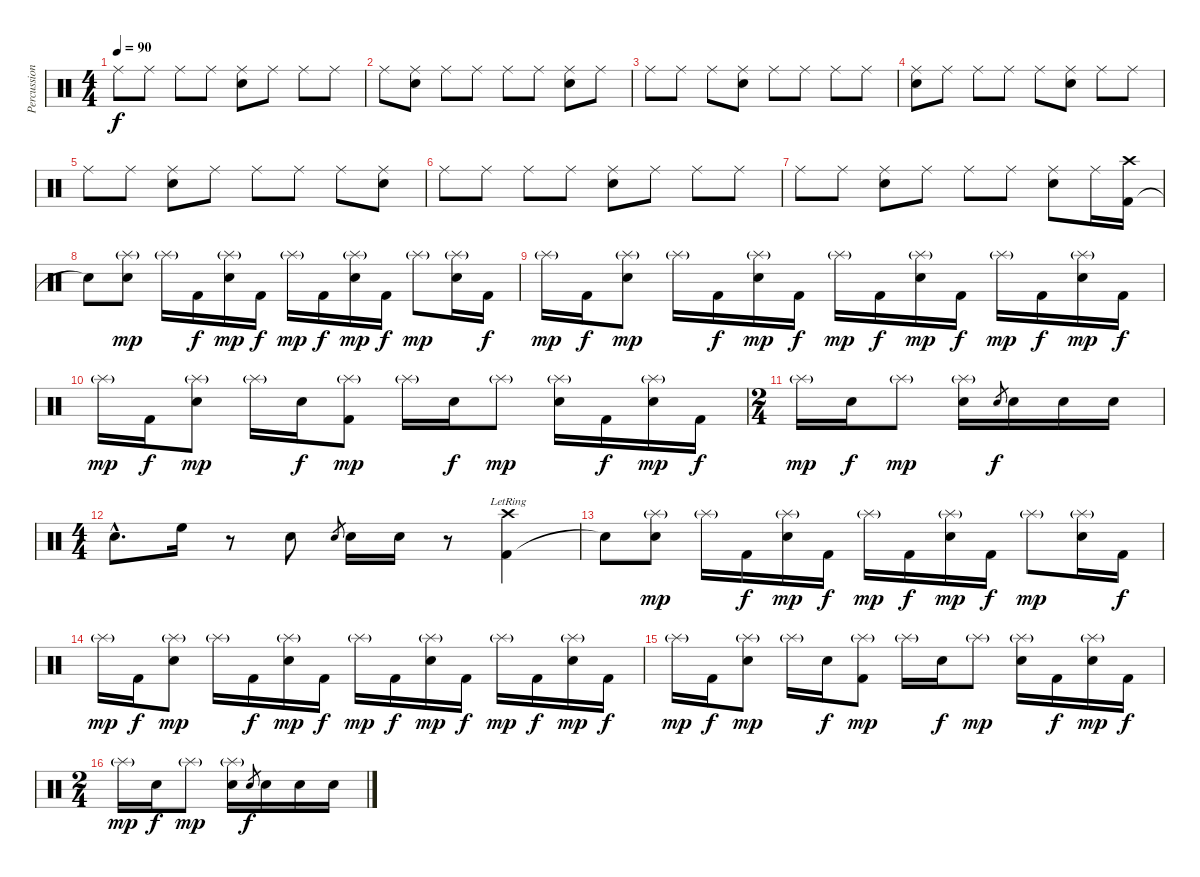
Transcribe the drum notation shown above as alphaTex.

\track ("Percussion" "Percussion") {instrument percussion}
\staff {score}
\articulation defaults
\ts (4 4)
\tempo 90
\clef neutral
\ks c "Ride (middle)".8{dy f} "Ride (middle)".8 "Ride (middle)".8 "Ride (middle)".8
("Snare (hit) 2" "Ride (middle)").8 "Ride (middle)".8 "Ride (middle)".8 "Ride (middle)".8 |
"Ride (middle)".8 ("Snare (hit) 2" "Ride (middle)").8 "Ride (middle)".8 "Ride (middle)".8 "Ride (middle)".8 "Ride (middle)".8 ("Snare (hit) 2" "Ride (middle)").8 "Ride (middle)".8 |
"Ride (middle)".8 "Ride (middle)".8 "Ride (middle)".8 ("Snare (hit) 2" "Ride (middle)").8 "Ride (middle)".8 "Ride (middle)".8 "Ride (middle)".8 "Ride (middle)".8 |
("Snare (hit) 2" "Ride (middle)").8 "Ride (middle)".8 "Ride (middle)".8 "Ride (middle)".8 "Ride (middle)".8 ("Snare (hit) 2" "Ride (middle)").8 "Ride (middle)".8 "Ride (middle)".8 |
"Ride (middle)".8 "Ride (middle)".8 ("Snare (hit) 2" "Ride (middle)").8 "Ride (middle)".8 "Ride (middle)".8 "Ride (middle)".8 "Ride (middle)".8 ("Snare (hit) 2" "Ride (middle)").8 |
"Ride (middle)".8 "Ride (middle)".8 "Ride (middle)".8 "Ride (middle)".8 ("Snare (hit) 2" "Ride (middle)").8 "Ride (middle)".8 "Ride (middle)".8 "Ride (middle)".8 |
"Ride (middle)".8 "Ride (middle)".8 ("Snare (hit) 2" "Ride (middle)").8 "Ride (middle)".8 "Ride (middle)".8 "Ride (middle)".8 ("Snare (hit) 2" "Ride (middle)").8 "Ride (middle)".16 ("Kick (hit) 2" "Crash high (hit)").16 |
"Snare (hit)"{t}.8 ("Snare (hit) 2" "Splash (hit)"{g}).8{dy mp} "Splash (hit)"{g}.16 "Kick (hit) 2".16{dy f} ("Snare (hit) 2" "Splash (hit)"{g}).16{dy mp} "Kick (hit) 2".16{dy f} "Splash (hit)"{g}.16{dy mp} "Kick (hit) 2".16{dy f} ("Snare (hit) 2" "Splash (hit)"{g}).16{dy mp} "Kick (hit) 2".16{dy f} "Splash (hit)"{g}.8{dy mp} ("Snare (hit) 2" "Splash (hit)"{g}).16 "Kick (hit) 2".16{dy f} |
"Splash (hit)"{g}.16{dy mp} "Kick (hit) 2".16{dy f} ("Snare (hit) 2" "Splash (hit)"{g}).8{dy mp} "Splash (hit)"{g}.16 "Kick (hit) 2".16{dy f} ("Snare (hit) 2" "Splash (hit)"{g}).16{dy mp} "Kick (hit) 2".16{dy f} "Splash (hit)"{g}.16{dy mp} "Kick (hit) 2".16{dy f} ("Snare (hit) 2" "Splash (hit)"{g}).16{dy mp} "Kick (hit) 2".16{dy f} "Splash (hit)"{g}.16{dy mp} "Kick (hit) 2".16{dy f} ("Snare (hit) 2" "Splash (hit)"{g}).16{dy mp} "Kick (hit) 2".16{dy f} |
"Splash (hit)"{g}.16{dy mp} "Kick (hit) 2".16{dy f} ("Snare (hit) 2" "Splash (hit)"{g}).8{dy mp} "Splash (hit)"{g}.16 "Snare (hit) 2".16{dy f} ("Kick (hit) 2" "Splash (hit)"{g}).8{dy mp} "Splash (hit)"{g}.16 "Snare (hit) 2".16{dy f} "Splash (hit)"{g}.8{dy mp} ("Snare (hit) 2" "Splash (hit)"{g}).16 "Kick (hit) 2".16{dy f} ("Snare (hit) 2" "Splash (hit)"{g}).16{dy mp} "Kick (hit) 2".16{dy f} |
\ts (2 4)
"Splash (hit)"{g}.16{dy mp} "Snare (hit) 2".16{dy f} "Splash (hit)"{g}.8{dy mp} ("Snare (hit) 2" "Splash (hit)"{g}).16 "Snare (hit) 2".8{gr dy f} "Snare (hit) 2".16 "Snare (hit) 2".16 "Snare (hit) 2".16 |
\ts (4 4)
"Snare (hit) 2"{hac}.8{d} "High Floor Tom (hit)".16 r.8 "Snare (hit) 2".8 "Snare (hit) 2".8{gr} "Snare (hit) 2".16 "Snare (hit) 2".16 r.8 ("Kick (hit) 2" "Crash high (hit)"{lr}).4 |
"Snare (hit)"{t}.8 ("Snare (hit) 2" "Splash (hit)"{g}).8{dy mp} "Splash (hit)"{g}.16 "Kick (hit) 2".16{dy f} ("Snare (hit) 2" "Splash (hit)"{g}).16{dy mp} "Kick (hit) 2".16{dy f} "Splash (hit)"{g}.16{dy mp} "Kick (hit) 2".16{dy f} ("Snare (hit) 2" "Splash (hit)"{g}).16{dy mp} "Kick (hit) 2".16{dy f} "Splash (hit)"{g}.8{dy mp} ("Snare (hit) 2" "Splash (hit)"{g}).16 "Kick (hit) 2".16{dy f} |
"Splash (hit)"{g}.16{dy mp} "Kick (hit) 2".16{dy f} ("Snare (hit) 2" "Splash (hit)"{g}).8{dy mp} "Splash (hit)"{g}.16 "Kick (hit) 2".16{dy f} ("Snare (hit) 2" "Splash (hit)"{g}).16{dy mp} "Kick (hit) 2".16{dy f} "Splash (hit)"{g}.16{dy mp} "Kick (hit) 2".16{dy f} ("Snare (hit) 2" "Splash (hit)"{g}).16{dy mp} "Kick (hit) 2".16{dy f} "Splash (hit)"{g}.16{dy mp} "Kick (hit) 2".16{dy f} ("Snare (hit) 2" "Splash (hit)"{g}).16{dy mp} "Kick (hit) 2".16{dy f} |
"Splash (hit)"{g}.16{dy mp} "Kick (hit) 2".16{dy f} ("Snare (hit) 2" "Splash (hit)"{g}).8{dy mp} "Splash (hit)"{g}.16 "Snare (hit) 2".16{dy f} ("Kick (hit) 2" "Splash (hit)"{g}).8{dy mp} "Splash (hit)"{g}.16 "Snare (hit) 2".16{dy f} "Splash (hit)"{g}.8{dy mp} ("Snare (hit) 2" "Splash (hit)"{g}).16 "Kick (hit) 2".16{dy f} ("Snare (hit) 2" "Splash (hit)"{g}).16{dy mp} "Kick (hit) 2".16{dy f} |
\ts (2 4)
"Splash (hit)"{g}.16{dy mp} "Snare (hit) 2".16{dy f} "Splash (hit)"{g}.8{dy mp} ("Snare (hit) 2" "Splash (hit)"{g}).16 "Snare (hit) 2".8{gr dy f} "Snare (hit) 2".16 "Snare (hit) 2".16 "Snare (hit) 2".16
